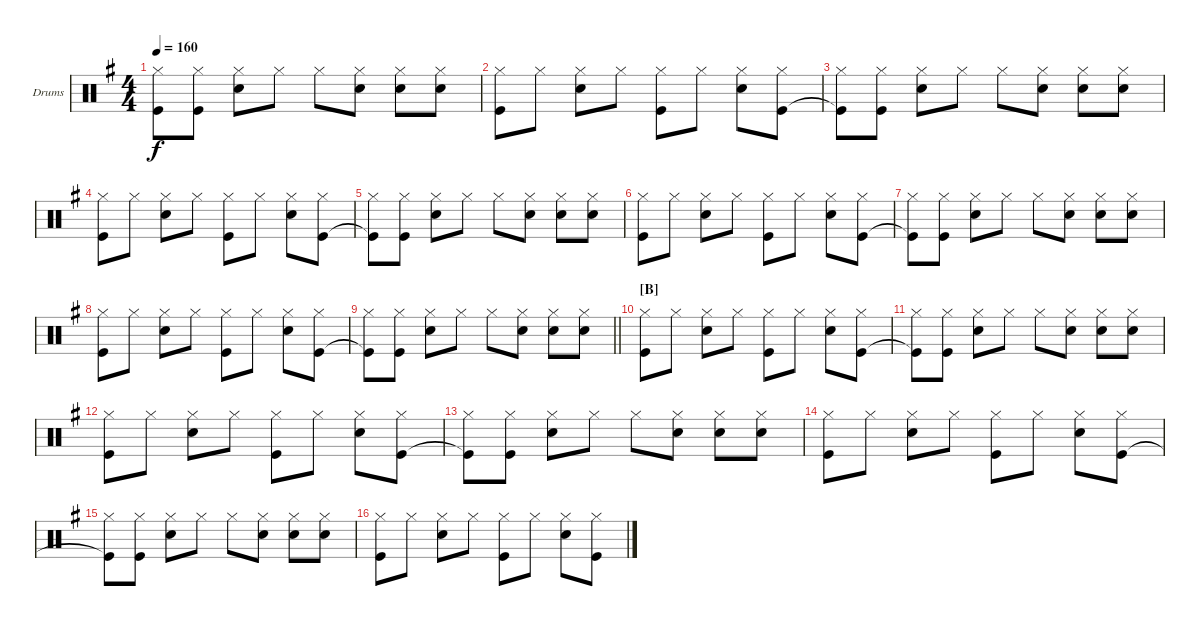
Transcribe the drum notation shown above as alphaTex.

\bracketExtendMode groupsimilarinstruments
\firstSystemTrackNameOrientation horizontal
\otherSystemsTrackNameOrientation horizontal
\track ("Fabrizio Moretti" "Drums") {instrument percussion}
\staff {score}
\articulation defaults
\ts (4 4)
\tempo 160
\clef neutral
\ks g
("Hi-Hat (closed)" "Kick (hit)"{t}).8{dy f} ("Hi-Hat (closed)" "Kick (hit)").8 ("Hi-Hat (closed)" "Snare (hit) 2").8 "Hi-Hat (closed)".8 "Hi-Hat (closed)".8 ("Hi-Hat (closed)" "Snare (hit) 2").8 ("Hi-Hat (closed)" "Snare (hit) 2").8 ("Hi-Hat (closed)" "Snare (hit) 2").8 |
("Hi-Hat (closed)" "Kick (hit)").8 "Hi-Hat (closed)".8 ("Hi-Hat (closed)" "Snare (hit) 2").8 "Hi-Hat (closed)".8 ("Hi-Hat (closed)" "Kick (hit)").8 "Hi-Hat (closed)".8 ("Hi-Hat (closed)" "Snare (hit) 2").8 ("Hi-Hat (closed)" "Kick (hit)").8 |
("Hi-Hat (closed)" "Kick (hit)"{t}).8 ("Hi-Hat (closed)" "Kick (hit)").8 ("Hi-Hat (closed)" "Snare (hit) 2").8 "Hi-Hat (closed)".8 "Hi-Hat (closed)".8 ("Hi-Hat (closed)" "Snare (hit) 2").8 ("Hi-Hat (closed)" "Snare (hit) 2").8 ("Hi-Hat (closed)" "Snare (hit) 2").8 |
("Hi-Hat (closed)" "Kick (hit)").8 "Hi-Hat (closed)".8 ("Hi-Hat (closed)" "Snare (hit) 2").8 "Hi-Hat (closed)".8 ("Hi-Hat (closed)" "Kick (hit)").8 "Hi-Hat (closed)".8 ("Hi-Hat (closed)" "Snare (hit) 2").8 ("Hi-Hat (closed)" "Kick (hit)").8 |
("Hi-Hat (closed)" "Kick (hit)"{t}).8 ("Hi-Hat (closed)" "Kick (hit)").8 ("Hi-Hat (closed)" "Snare (hit) 2").8 "Hi-Hat (closed)".8 "Hi-Hat (closed)".8 ("Hi-Hat (closed)" "Snare (hit) 2").8 ("Hi-Hat (closed)" "Snare (hit) 2").8 ("Hi-Hat (closed)" "Snare (hit) 2").8 |
("Hi-Hat (closed)" "Kick (hit)").8 "Hi-Hat (closed)".8 ("Hi-Hat (closed)" "Snare (hit) 2").8 "Hi-Hat (closed)".8 ("Hi-Hat (closed)" "Kick (hit)").8 "Hi-Hat (closed)".8 ("Hi-Hat (closed)" "Snare (hit) 2").8 ("Hi-Hat (closed)" "Kick (hit)").8 |
("Hi-Hat (closed)" "Kick (hit)"{t}).8 ("Hi-Hat (closed)" "Kick (hit)").8 ("Hi-Hat (closed)" "Snare (hit) 2").8 "Hi-Hat (closed)".8 "Hi-Hat (closed)".8 ("Hi-Hat (closed)" "Snare (hit) 2").8 ("Hi-Hat (closed)" "Snare (hit) 2").8 ("Hi-Hat (closed)" "Snare (hit) 2").8 |
("Hi-Hat (closed)" "Kick (hit)").8 "Hi-Hat (closed)".8 ("Hi-Hat (closed)" "Snare (hit) 2").8 "Hi-Hat (closed)".8 ("Hi-Hat (closed)" "Kick (hit)").8 "Hi-Hat (closed)".8 ("Hi-Hat (closed)" "Snare (hit) 2").8 ("Hi-Hat (closed)" "Kick (hit)").8 |
\barLineRight lightlight
("Hi-Hat (closed)" "Kick (hit)"{t}).8 ("Hi-Hat (closed)" "Kick (hit)").8 ("Hi-Hat (closed)" "Snare (hit) 2").8 "Hi-Hat (closed)".8 "Hi-Hat (closed)".8 ("Hi-Hat (closed)" "Snare (hit) 2").8 ("Hi-Hat (closed)" "Snare (hit) 2").8 ("Hi-Hat (closed)" "Snare (hit) 2").8 |
\section ("B" "")
("Hi-Hat (closed)" "Kick (hit)").8 "Hi-Hat (closed)".8 ("Hi-Hat (closed)" "Snare (hit) 2").8 "Hi-Hat (closed)".8 ("Hi-Hat (closed)" "Kick (hit)").8 "Hi-Hat (closed)".8 ("Hi-Hat (closed)" "Snare (hit) 2").8 ("Hi-Hat (closed)" "Kick (hit)").8 |
("Hi-Hat (closed)" "Kick (hit)"{t}).8 ("Hi-Hat (closed)" "Kick (hit)").8 ("Hi-Hat (closed)" "Snare (hit) 2").8 "Hi-Hat (closed)".8 "Hi-Hat (closed)".8 ("Hi-Hat (closed)" "Snare (hit) 2").8 ("Hi-Hat (closed)" "Snare (hit) 2").8 ("Hi-Hat (closed)" "Snare (hit) 2").8 |
("Hi-Hat (closed)" "Kick (hit)").8 "Hi-Hat (closed)".8 ("Hi-Hat (closed)" "Snare (hit) 2").8 "Hi-Hat (closed)".8 ("Hi-Hat (closed)" "Kick (hit)").8 "Hi-Hat (closed)".8 ("Hi-Hat (closed)" "Snare (hit) 2").8 ("Hi-Hat (closed)" "Kick (hit)").8 |
("Hi-Hat (closed)" "Kick (hit)"{t}).8 ("Hi-Hat (closed)" "Kick (hit)").8 ("Hi-Hat (closed)" "Snare (hit) 2").8 "Hi-Hat (closed)".8 "Hi-Hat (closed)".8 ("Hi-Hat (closed)" "Snare (hit) 2").8 ("Hi-Hat (closed)" "Snare (hit) 2").8 ("Hi-Hat (closed)" "Snare (hit) 2").8 |
("Hi-Hat (closed)" "Kick (hit)").8 "Hi-Hat (closed)".8 ("Hi-Hat (closed)" "Snare (hit) 2").8 "Hi-Hat (closed)".8 ("Hi-Hat (closed)" "Kick (hit)").8 "Hi-Hat (closed)".8 ("Hi-Hat (closed)" "Snare (hit) 2").8 ("Hi-Hat (closed)" "Kick (hit)").8 |
("Hi-Hat (closed)" "Kick (hit)"{t}).8 ("Hi-Hat (closed)" "Kick (hit)").8 ("Hi-Hat (closed)" "Snare (hit) 2").8 "Hi-Hat (closed)".8 "Hi-Hat (closed)".8 ("Hi-Hat (closed)" "Snare (hit) 2").8 ("Hi-Hat (closed)" "Snare (hit) 2").8 ("Hi-Hat (closed)" "Snare (hit) 2").8 |
("Hi-Hat (closed)" "Kick (hit)").8 "Hi-Hat (closed)".8 ("Hi-Hat (closed)" "Snare (hit) 2").8 "Hi-Hat (closed)".8 ("Hi-Hat (closed)" "Kick (hit)").8 "Hi-Hat (closed)".8 ("Hi-Hat (closed)" "Snare (hit) 2").8 ("Hi-Hat (closed)" "Kick (hit)").8
